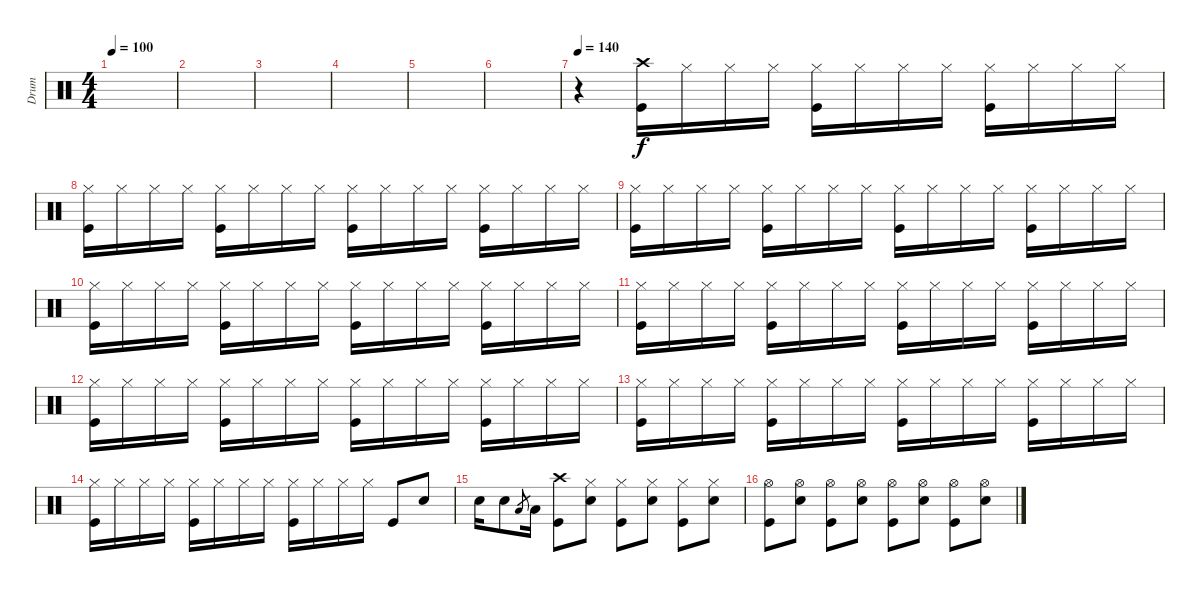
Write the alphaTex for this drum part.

\track ("Drum" "Drum") {instrument percussion}
\staff {score}
\articulation defaults
\ts (4 4)
\tempo 100
\clef neutral
\ks c
|
|
|
|
|
|
\tempo 140
r.4 ("Crash high (hit)" "Kick (hit)").16 "Hi-Hat (closed)".16 "Hi-Hat (closed)".16 "Hi-Hat (closed)".16 ("Hi-Hat (closed)" "Kick (hit)").16 "Hi-Hat (closed)".16 "Hi-Hat (closed)".16 "Hi-Hat (closed)".16 ("Hi-Hat (closed)" "Kick (hit)").16 "Hi-Hat (closed)".16 "Hi-Hat (closed)".16 "Hi-Hat (closed)".16 |
("Hi-Hat (closed)" "Kick (hit)").16 "Hi-Hat (closed)".16 "Hi-Hat (closed)".16 "Hi-Hat (closed)".16 ("Hi-Hat (closed)" "Kick (hit)").16 "Hi-Hat (closed)".16 "Hi-Hat (closed)".16 "Hi-Hat (closed)".16 ("Hi-Hat (closed)" "Kick (hit)").16 "Hi-Hat (closed)".16 "Hi-Hat (closed)".16 "Hi-Hat (closed)".16 ("Hi-Hat (closed)" "Kick (hit)").16 "Hi-Hat (closed)".16 "Hi-Hat (closed)".16 "Hi-Hat (closed)".16 |
("Hi-Hat (closed)" "Kick (hit)").16 "Hi-Hat (closed)".16 "Hi-Hat (closed)".16 "Hi-Hat (closed)".16 ("Hi-Hat (closed)" "Kick (hit)").16 "Hi-Hat (closed)".16 "Hi-Hat (closed)".16 "Hi-Hat (closed)".16 ("Hi-Hat (closed)" "Kick (hit)").16 "Hi-Hat (closed)".16 "Hi-Hat (closed)".16 "Hi-Hat (closed)".16 ("Hi-Hat (closed)" "Kick (hit)").16 "Hi-Hat (closed)".16 "Hi-Hat (closed)".16 "Hi-Hat (closed)".16 |
("Hi-Hat (closed)" "Kick (hit)").16 "Hi-Hat (closed)".16 "Hi-Hat (closed)".16 "Hi-Hat (closed)".16 ("Hi-Hat (closed)" "Kick (hit)").16 "Hi-Hat (closed)".16 "Hi-Hat (closed)".16 "Hi-Hat (closed)".16 ("Hi-Hat (closed)" "Kick (hit)").16 "Hi-Hat (closed)".16 "Hi-Hat (closed)".16 "Hi-Hat (closed)".16 ("Hi-Hat (closed)" "Kick (hit)").16 "Hi-Hat (closed)".16 "Hi-Hat (closed)".16 "Hi-Hat (closed)".16 |
("Hi-Hat (closed)" "Kick (hit)").16 "Hi-Hat (closed)".16 "Hi-Hat (closed)".16 "Hi-Hat (closed)".16 ("Hi-Hat (closed)" "Kick (hit)").16 "Hi-Hat (closed)".16 "Hi-Hat (closed)".16 "Hi-Hat (closed)".16 ("Hi-Hat (closed)" "Kick (hit)").16 "Hi-Hat (closed)".16 "Hi-Hat (closed)".16 "Hi-Hat (closed)".16 ("Hi-Hat (closed)" "Kick (hit)").16 "Hi-Hat (closed)".16 "Hi-Hat (closed)".16 "Hi-Hat (closed)".16 |
("Hi-Hat (closed)" "Kick (hit)").16 "Hi-Hat (closed)".16 "Hi-Hat (closed)".16 "Hi-Hat (closed)".16 ("Hi-Hat (closed)" "Kick (hit)").16 "Hi-Hat (closed)".16 "Hi-Hat (closed)".16 "Hi-Hat (closed)".16 ("Hi-Hat (closed)" "Kick (hit)").16 "Hi-Hat (closed)".16 "Hi-Hat (closed)".16 "Hi-Hat (closed)".16 ("Hi-Hat (closed)" "Kick (hit)").16 "Hi-Hat (closed)".16 "Hi-Hat (closed)".16 "Hi-Hat (closed)".16 |
("Hi-Hat (closed)" "Kick (hit)").16 "Hi-Hat (closed)".16 "Hi-Hat (closed)".16 "Hi-Hat (closed)".16 ("Hi-Hat (closed)" "Kick (hit)").16 "Hi-Hat (closed)".16 "Hi-Hat (closed)".16 "Hi-Hat (closed)".16 ("Hi-Hat (closed)" "Kick (hit)").16 "Hi-Hat (closed)".16 "Hi-Hat (closed)".16 "Hi-Hat (closed)".16 ("Hi-Hat (closed)" "Kick (hit)").16 "Hi-Hat (closed)".16 "Hi-Hat (closed)".16 "Hi-Hat (closed)".16 |
("Hi-Hat (closed)" "Kick (hit)").16 "Hi-Hat (closed)".16 "Hi-Hat (closed)".16 "Hi-Hat (closed)".16 ("Hi-Hat (closed)" "Kick (hit)").16 "Hi-Hat (closed)".16 "Hi-Hat (closed)".16 "Hi-Hat (closed)".16 ("Hi-Hat (closed)" "Kick (hit)").16 "Hi-Hat (closed)".16 "Hi-Hat (closed)".16 "Hi-Hat (closed)".16 "Kick (hit)".8 "Snare (hit) 2".8 |
"Snare (hit) 2".16 "Snare (hit) 2".8 "Low Floor Tom (hit)".8{gr} "Low Floor Tom (hit)".16 ("Crash high (hit)" "Kick (hit)").8{volume 10} ("Hi-Hat (closed)" "Snare (hit) 2").8 ("Hi-Hat (closed)" "Kick (hit)").8 ("Hi-Hat (closed)" "Snare (hit) 2").8 ("Hi-Hat (closed)" "Kick (hit)").8 ("Hi-Hat (closed)" "Snare (hit) 2").8 |
("Hi-Hat (open)" "Kick (hit)").8 ("Hi-Hat (open)" "Snare (hit) 2").8 ("Hi-Hat (open)" "Kick (hit)").8 ("Hi-Hat (open)" "Snare (hit) 2").8 ("Hi-Hat (open)" "Kick (hit)").8 ("Hi-Hat (open)" "Snare (hit) 2").8 ("Hi-Hat (open)" "Kick (hit)").8 ("Hi-Hat (open)" "Snare (hit) 2").8
